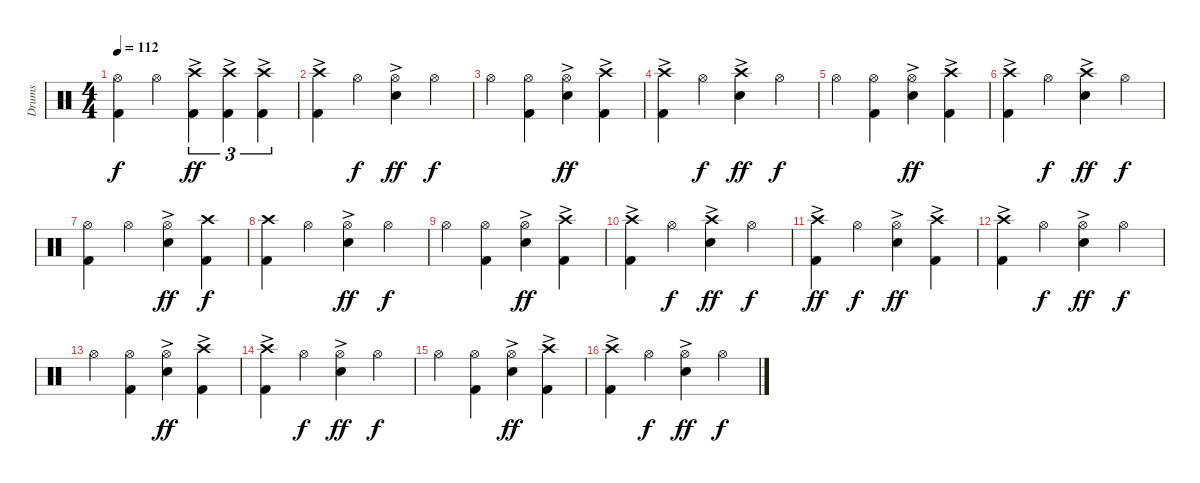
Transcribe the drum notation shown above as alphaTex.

\track ("Drums" "Drums") {instrument percussion}
\staff {score}
\articulation defaults
\ts (4 4)
\tempo 112
\clef neutral
\ks c
("Kick (hit) 2" "Hi-Hat (open)").4{dy f} "Hi-Hat (open)".4 ("Kick (hit) 2" "Crash high (hit)"{ac}).4{tu (3 2) dy ff} ("Kick (hit) 2" "Crash high (hit)"{ac}).4{tu (3 2)} ("Kick (hit) 2" "Crash high (hit)"{ac}).4{tu (3 2)} |
("Kick (hit) 2" "Crash high (hit)"{ac}).4 "Hi-Hat (open)".4{dy f} ("Snare (hit) 2" "Hi-Hat (open)"{ac}).4{dy ff} "Hi-Hat (open)".4{dy f} |
"Hi-Hat (open)".4 ("Kick (hit) 2" "Hi-Hat (open)").4 ("Snare (hit) 2" "Hi-Hat (open)"{ac}).4{dy ff} ("Kick (hit) 2" "Crash high (hit)"{ac}).4 |
("Kick (hit) 2" "Crash high (hit)"{ac}).4 "Hi-Hat (open)".4{dy f} ("Snare (hit) 2" "Crash high (hit)"{ac}).4{dy ff} "Hi-Hat (open)".4{dy f} |
"Hi-Hat (open)".4 ("Kick (hit) 2" "Hi-Hat (open)").4 ("Snare (hit) 2" "Hi-Hat (open)"{ac}).4{dy ff} ("Kick (hit) 2" "Crash high (hit)"{ac}).4 |
("Kick (hit) 2" "Crash high (hit)"{ac}).4 "Hi-Hat (open)".4{dy f} ("Snare (hit) 2" "Crash high (hit)"{ac}).4{dy ff} "Hi-Hat (open)".4{dy f} |
("Kick (hit) 2" "Hi-Hat (open)").4 "Hi-Hat (open)".4 ("Snare (hit) 2" "Hi-Hat (open)"{ac}).4{dy ff} ("Kick (hit) 2" "Crash high (hit)").4{dy f} |
("Kick (hit) 2" "Crash high (hit)").4 "Hi-Hat (open)".4 ("Snare (hit) 2" "Hi-Hat (open)"{ac}).4{dy ff} "Hi-Hat (open)".4{dy f} |
"Hi-Hat (open)".4 ("Kick (hit) 2" "Hi-Hat (open)").4 ("Snare (hit) 2" "Hi-Hat (open)"{ac}).4{dy ff} ("Kick (hit) 2" "Crash high (hit)"{ac}).4 |
("Kick (hit) 2" "Crash high (hit)"{ac}).4 "Hi-Hat (open)".4{dy f} ("Snare (hit) 2" "Crash high (hit)"{ac}).4{dy ff} "Hi-Hat (open)".4{dy f} |
("Kick (hit) 2" "Crash high (hit)"{ac}).4{dy ff} "Hi-Hat (open)".4{dy f} ("Snare (hit) 2" "Hi-Hat (open)"{ac}).4{dy ff} ("Kick (hit) 2" "Crash high (hit)"{ac}).4 |
("Kick (hit) 2" "Crash high (hit)"{ac}).4 "Hi-Hat (open)".4{dy f} ("Snare (hit) 2" "Hi-Hat (open)"{ac}).4{dy ff} "Hi-Hat (open)".4{dy f} |
"Hi-Hat (open)".4 ("Kick (hit) 2" "Hi-Hat (open)").4 ("Snare (hit) 2" "Hi-Hat (open)"{ac}).4{dy ff} ("Kick (hit) 2" "Crash high (hit)"{ac}).4 |
("Kick (hit) 2" "Crash high (hit)"{ac}).4 "Hi-Hat (open)".4{dy f} ("Snare (hit) 2" "Hi-Hat (open)"{ac}).4{dy ff} "Hi-Hat (open)".4{dy f} |
"Hi-Hat (open)".4 ("Kick (hit) 2" "Hi-Hat (open)").4 ("Snare (hit) 2" "Hi-Hat (open)"{ac}).4{dy ff} ("Kick (hit) 2" "Crash high (hit)"{ac}).4 |
("Kick (hit) 2" "Crash high (hit)"{ac}).4 "Hi-Hat (open)".4{dy f} ("Snare (hit) 2" "Hi-Hat (open)"{ac}).4{dy ff} "Hi-Hat (open)".4{dy f}
